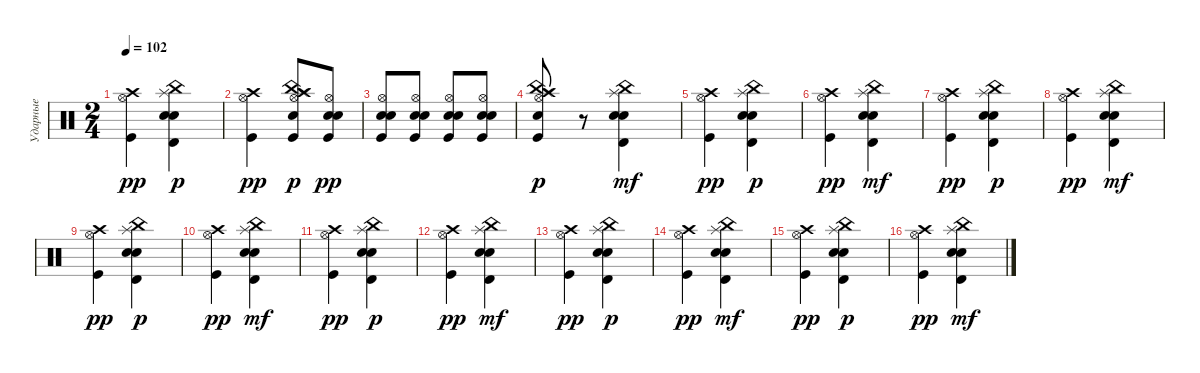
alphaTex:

\track ("Ударные" "Ударные") {instrument percussion}
\staff {score}
\articulation defaults
\ts (2 4)
\tempo 102
\clef neutral
\ks c
("Kick (hit)" "Hi-Hat (open)" "Crash high (hit)").4{dy pp} ("Splash (hit)" "China (hit)" "Snare (hit) 2" "Electric Snare (hit)" "Timbale high (hit)").4{dy p} |
("Kick (hit)" "Hi-Hat (open)" "Crash high (hit)").4{dy pp} ("Snare (hit) 2" "Hi-Hat (open)" "China (hit)" "Splash (hit)" "Crash high (hit)" "Kick (hit)").8{dy p} ("Hi-Hat (open)" "Snare (hit) 2" "Kick (hit)" "Hand Clap (hit)").8{dy pp} |
("Hi-Hat (open)" "Snare (hit) 2" "Kick (hit)" "Hand Clap (hit)").8 ("Hi-Hat (open)" "Snare (hit) 2" "Kick (hit)" "Hand Clap (hit)").8 ("Hi-Hat (open)" "Snare (hit) 2" "Kick (hit)" "Hand Clap (hit)").8 ("Hi-Hat (open)" "Snare (hit) 2" "Kick (hit)" "Hand Clap (hit)").8 |
("Snare (hit) 2" "Hi-Hat (open)" "China (hit)" "Splash (hit)" "Crash high (hit)" "Kick (hit)").8{dy p} r.8 ("Splash (hit)" "China (hit)" "Snare (hit) 2" "Timbale high (hit)" "Electric Snare (hit)").4{dy mf} |
("Kick (hit)" "Hi-Hat (open)" "Crash high (hit)").4{dy pp} ("Splash (hit)" "China (hit)" "Snare (hit) 2" "Electric Snare (hit)" "Timbale high (hit)").4{dy p} |
("Kick (hit)" "Hi-Hat (open)" "Crash high (hit)").4{dy pp} ("Splash (hit)" "China (hit)" "Snare (hit) 2" "Timbale high (hit)" "Electric Snare (hit)").4{dy mf} |
("Kick (hit)" "Hi-Hat (open)" "Crash high (hit)").4{dy pp} ("Splash (hit)" "China (hit)" "Snare (hit) 2" "Electric Snare (hit)" "Timbale high (hit)").4{dy p} |
("Kick (hit)" "Hi-Hat (open)" "Crash high (hit)").4{dy pp} ("Splash (hit)" "China (hit)" "Snare (hit) 2" "Timbale high (hit)" "Electric Snare (hit)").4{dy mf} |
("Kick (hit)" "Hi-Hat (open)" "Crash high (hit)").4{dy pp} ("Splash (hit)" "China (hit)" "Snare (hit) 2" "Electric Snare (hit)" "Timbale high (hit)").4{dy p} |
("Kick (hit)" "Hi-Hat (open)" "Crash high (hit)").4{dy pp} ("Splash (hit)" "China (hit)" "Snare (hit) 2" "Timbale high (hit)" "Electric Snare (hit)").4{dy mf} |
("Kick (hit)" "Hi-Hat (open)" "Crash high (hit)").4{dy pp} ("Splash (hit)" "China (hit)" "Snare (hit) 2" "Electric Snare (hit)" "Timbale high (hit)").4{dy p} |
("Kick (hit)" "Hi-Hat (open)" "Crash high (hit)").4{dy pp} ("Splash (hit)" "China (hit)" "Snare (hit) 2" "Timbale high (hit)" "Electric Snare (hit)").4{dy mf} |
("Kick (hit)" "Hi-Hat (open)" "Crash high (hit)").4{dy pp} ("Splash (hit)" "China (hit)" "Snare (hit) 2" "Electric Snare (hit)" "Timbale high (hit)").4{dy p} |
("Kick (hit)" "Hi-Hat (open)" "Crash high (hit)").4{dy pp} ("Splash (hit)" "China (hit)" "Snare (hit) 2" "Timbale high (hit)" "Electric Snare (hit)").4{dy mf} |
("Kick (hit)" "Hi-Hat (open)" "Crash high (hit)").4{dy pp} ("Splash (hit)" "China (hit)" "Snare (hit) 2" "Electric Snare (hit)" "Timbale high (hit)").4{dy p} |
("Kick (hit)" "Hi-Hat (open)" "Crash high (hit)").4{dy pp} ("Splash (hit)" "China (hit)" "Snare (hit) 2" "Timbale high (hit)" "Electric Snare (hit)").4{dy mf}
